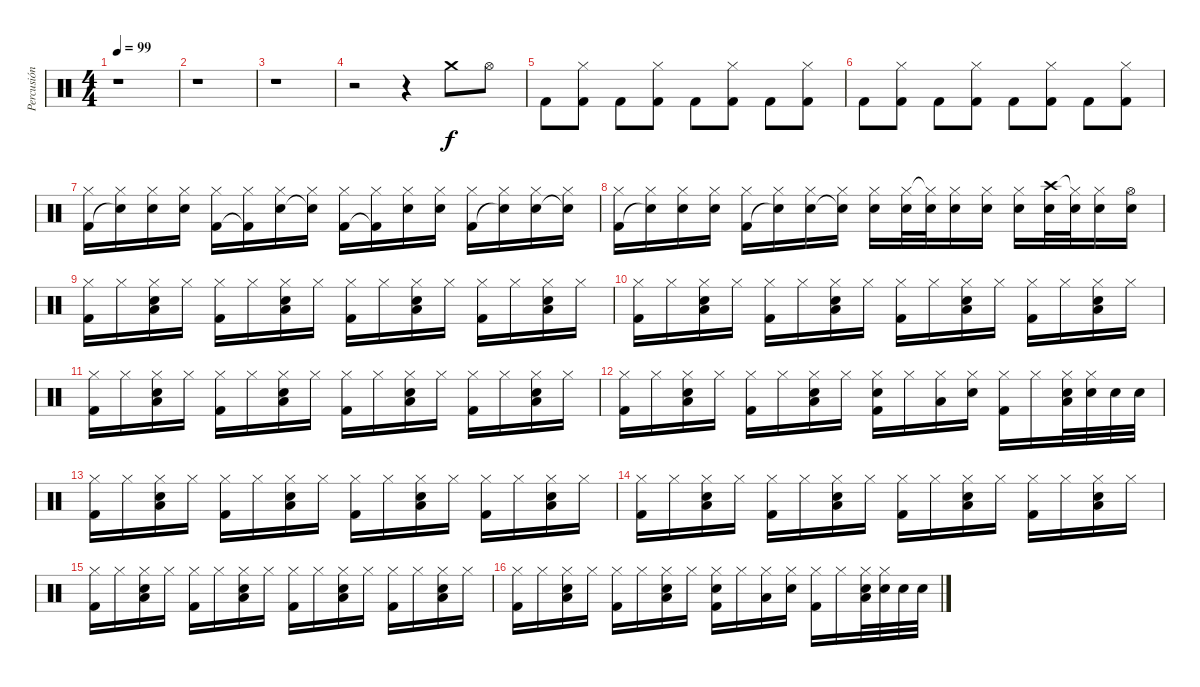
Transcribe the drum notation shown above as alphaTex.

\track ("Percusión" "Percusión") {instrument percussion}
\staff {score}
\articulation defaults
\ts (4 4)
\tempo 99
\clef neutral
\ks c
r.1{dy f} |
r.1 |
r.1 |
r.2 r.4 "Crash medium (hit)".8 "Hi-Hat (open)".8 |
"Kick (hit) 2".8 ("Hi-Hat (closed)" "Kick (hit) 2").8 "Kick (hit) 2".8 ("Hi-Hat (closed)" "Kick (hit) 2").8 "Kick (hit) 2".8 ("Hi-Hat (closed)" "Kick (hit) 2").8 "Kick (hit) 2".8 ("Hi-Hat (closed)" "Kick (hit) 2").8 |
"Kick (hit) 2".8 ("Hi-Hat (closed)" "Kick (hit) 2").8 "Kick (hit) 2".8 ("Hi-Hat (closed)" "Kick (hit) 2").8 "Kick (hit) 2".8 ("Hi-Hat (closed)" "Kick (hit) 2").8 "Kick (hit) 2".8 ("Hi-Hat (closed)" "Kick (hit) 2").8 |
("Hi-Hat (closed)" "Kick (hit) 2").16 ("Hi-Hat (closed)" "Snare (hit)"{t}).16 ("Hi-Hat (closed)" "Snare (hit) 2").16 ("Hi-Hat (closed)" "Snare (hit) 2").16 ("Hi-Hat (closed)" "Kick (hit) 2").16 ("Hi-Hat (closed)" "Kick (hit) 2"{t}).16 ("Hi-Hat (closed)" "Snare (hit) 2").16 ("Hi-Hat (closed)" "Snare (hit) 2"{t}).16 ("Hi-Hat (closed)" "Kick (hit) 2").16 ("Hi-Hat (closed)" "Kick (hit) 2"{t}).16 ("Hi-Hat (closed)" "Snare (hit) 2").16 ("Hi-Hat (closed)" "Snare (hit) 2").16 ("Hi-Hat (closed)" "Kick (hit) 2").16 ("Hi-Hat (closed)" "Snare (hit)"{t}).16 ("Hi-Hat (closed)" "Snare (hit) 2").16 ("Hi-Hat (closed)" "Snare (hit)"{t}).16 |
("Hi-Hat (closed)" "Kick (hit) 2").16 ("Hi-Hat (closed)" "Snare (hit)"{t}).16 ("Hi-Hat (closed)" "Snare (hit) 2").16 ("Hi-Hat (closed)" "Snare (hit) 2").16 ("Hi-Hat (closed)" "Kick (hit) 2").16 ("Hi-Hat (closed)" "Snare (hit)"{t}).16 ("Hi-Hat (closed)" "Snare (hit) 2").16 ("Hi-Hat (closed)" "Snare (hit) 2"{t}).16 ("Hi-Hat (closed)" "Snare (hit) 2").16 ("Hi-Hat (closed)" "Snare (hit) 2").32 ("Hi-Hat (closed)"{t} "Snare (hit) 2").32 ("Hi-Hat (closed)" "Snare (hit) 2").16 ("Hi-Hat (closed)" "Snare (hit) 2").16 ("Hi-Hat (closed)" "Snare (hit) 2").16 ("Crash high (hit)" "Snare (hit) 2").32 ("Hi-Hat (closed)"{t} "Snare (hit) 2").32 ("Hi-Hat (closed)" "Snare (hit) 2").16 ("Hi-Hat (open)" "Snare (hit) 2").16 |
("Hi-Hat (closed)" "Kick (hit) 2").16 "Hi-Hat (closed)".16 ("Hi-Hat (closed)" "Snare (hit) 2" "Low Tom (hit)").16 "Hi-Hat (closed)".16 ("Hi-Hat (closed)" "Kick (hit) 2").16 "Hi-Hat (closed)".16 ("Hi-Hat (closed)" "Snare (hit) 2" "Low Tom (hit)").16 "Hi-Hat (closed)".16 ("Hi-Hat (closed)" "Kick (hit) 2").16 "Hi-Hat (closed)".16 ("Hi-Hat (closed)" "Snare (hit) 2" "Low Tom (hit)").16 "Hi-Hat (closed)".16 ("Hi-Hat (closed)" "Kick (hit) 2").16 "Hi-Hat (closed)".16 ("Hi-Hat (closed)" "Snare (hit) 2" "Low Tom (hit)").16 "Hi-Hat (closed)".16 |
("Hi-Hat (closed)" "Kick (hit) 2").16 "Hi-Hat (closed)".16 ("Hi-Hat (closed)" "Snare (hit) 2" "Low Tom (hit)").16 "Hi-Hat (closed)".16 ("Hi-Hat (closed)" "Kick (hit) 2").16 "Hi-Hat (closed)".16 ("Hi-Hat (closed)" "Snare (hit) 2" "Low Tom (hit)").16 "Hi-Hat (closed)".16 ("Hi-Hat (closed)" "Kick (hit) 2").16 "Hi-Hat (closed)".16 ("Hi-Hat (closed)" "Snare (hit) 2" "Low Tom (hit)").16 "Hi-Hat (closed)".16 ("Hi-Hat (closed)" "Kick (hit) 2").16 "Hi-Hat (closed)".16 ("Hi-Hat (closed)" "Snare (hit) 2" "Low Tom (hit)").16 "Hi-Hat (closed)".16 |
("Hi-Hat (closed)" "Kick (hit) 2").16 "Hi-Hat (closed)".16 ("Hi-Hat (closed)" "Snare (hit) 2" "Low Tom (hit)").16 "Hi-Hat (closed)".16 ("Hi-Hat (closed)" "Kick (hit) 2").16 "Hi-Hat (closed)".16 ("Hi-Hat (closed)" "Snare (hit) 2" "Low Tom (hit)").16 "Hi-Hat (closed)".16 ("Hi-Hat (closed)" "Kick (hit) 2").16 "Hi-Hat (closed)".16 ("Hi-Hat (closed)" "Snare (hit) 2" "Low Tom (hit)").16 "Hi-Hat (closed)".16 ("Hi-Hat (closed)" "Kick (hit) 2").16 "Hi-Hat (closed)".16 ("Hi-Hat (closed)" "Snare (hit) 2" "Low Tom (hit)").16 "Hi-Hat (closed)".16 |
("Hi-Hat (closed)" "Kick (hit) 2").16 "Hi-Hat (closed)".16 ("Hi-Hat (closed)" "Snare (hit) 2" "Low Tom (hit)").16 "Hi-Hat (closed)".16 ("Hi-Hat (closed)" "Kick (hit) 2").16 "Hi-Hat (closed)".16 ("Hi-Hat (closed)" "Snare (hit) 2" "Low Tom (hit)").16 "Hi-Hat (closed)".16 ("Hi-Hat (closed)" "Snare (hit) 2" "Kick (hit) 2").16 "Hi-Hat (closed)".16 ("Hi-Hat (closed)" "Low Tom (hit)").16 ("Hi-Hat (closed)" "Snare (hit) 2").16 ("Hi-Hat (closed)" "Kick (hit) 2").16 "Hi-Hat (closed)".16 ("Hi-Hat (closed)" "Snare (hit) 2" "Low Tom (hit)").32 ("Hi-Hat (closed)" "Snare (hit) 2").32 "Snare (hit) 2".32 "Snare (hit) 2".32 |
("Hi-Hat (closed)" "Kick (hit) 2").16 "Hi-Hat (closed)".16 ("Hi-Hat (closed)" "Snare (hit) 2" "Low Tom (hit)").16 "Hi-Hat (closed)".16 ("Hi-Hat (closed)" "Kick (hit) 2").16 "Hi-Hat (closed)".16 ("Hi-Hat (closed)" "Snare (hit) 2" "Low Tom (hit)").16 "Hi-Hat (closed)".16 ("Hi-Hat (closed)" "Kick (hit) 2").16 "Hi-Hat (closed)".16 ("Hi-Hat (closed)" "Snare (hit) 2" "Low Tom (hit)").16 "Hi-Hat (closed)".16 ("Hi-Hat (closed)" "Kick (hit) 2").16 "Hi-Hat (closed)".16 ("Hi-Hat (closed)" "Snare (hit) 2" "Low Tom (hit)").16 "Hi-Hat (closed)".16 |
("Hi-Hat (closed)" "Kick (hit) 2").16 "Hi-Hat (closed)".16 ("Hi-Hat (closed)" "Snare (hit) 2" "Low Tom (hit)").16 "Hi-Hat (closed)".16 ("Hi-Hat (closed)" "Kick (hit) 2").16 "Hi-Hat (closed)".16 ("Hi-Hat (closed)" "Snare (hit) 2" "Low Tom (hit)").16 "Hi-Hat (closed)".16 ("Hi-Hat (closed)" "Kick (hit) 2").16 "Hi-Hat (closed)".16 ("Hi-Hat (closed)" "Snare (hit) 2" "Low Tom (hit)").16 "Hi-Hat (closed)".16 ("Hi-Hat (closed)" "Kick (hit) 2").16 "Hi-Hat (closed)".16 ("Hi-Hat (closed)" "Snare (hit) 2" "Low Tom (hit)").16 "Hi-Hat (closed)".16 |
("Hi-Hat (closed)" "Kick (hit) 2").16 "Hi-Hat (closed)".16 ("Hi-Hat (closed)" "Snare (hit) 2" "Low Tom (hit)").16 "Hi-Hat (closed)".16 ("Hi-Hat (closed)" "Kick (hit) 2").16 "Hi-Hat (closed)".16 ("Hi-Hat (closed)" "Snare (hit) 2" "Low Tom (hit)").16 "Hi-Hat (closed)".16 ("Hi-Hat (closed)" "Kick (hit) 2").16 "Hi-Hat (closed)".16 ("Hi-Hat (closed)" "Snare (hit) 2" "Low Tom (hit)").16 "Hi-Hat (closed)".16 ("Hi-Hat (closed)" "Kick (hit) 2").16 "Hi-Hat (closed)".16 ("Hi-Hat (closed)" "Snare (hit) 2" "Low Tom (hit)").16 "Hi-Hat (closed)".16 |
("Hi-Hat (closed)" "Kick (hit) 2").16 "Hi-Hat (closed)".16 ("Hi-Hat (closed)" "Snare (hit) 2" "Low Tom (hit)").16 "Hi-Hat (closed)".16 ("Hi-Hat (closed)" "Kick (hit) 2").16 "Hi-Hat (closed)".16 ("Hi-Hat (closed)" "Snare (hit) 2" "Low Tom (hit)").16 "Hi-Hat (closed)".16 ("Hi-Hat (closed)" "Snare (hit) 2" "Kick (hit) 2").16 "Hi-Hat (closed)".16 ("Hi-Hat (closed)" "Low Tom (hit)").16 ("Hi-Hat (closed)" "Snare (hit) 2").16 ("Hi-Hat (closed)" "Kick (hit) 2").16 "Hi-Hat (closed)".16 ("Hi-Hat (closed)" "Snare (hit) 2" "Low Tom (hit)").32 ("Hi-Hat (closed)" "Snare (hit) 2").32 "Snare (hit) 2".32 "Snare (hit) 2".32
